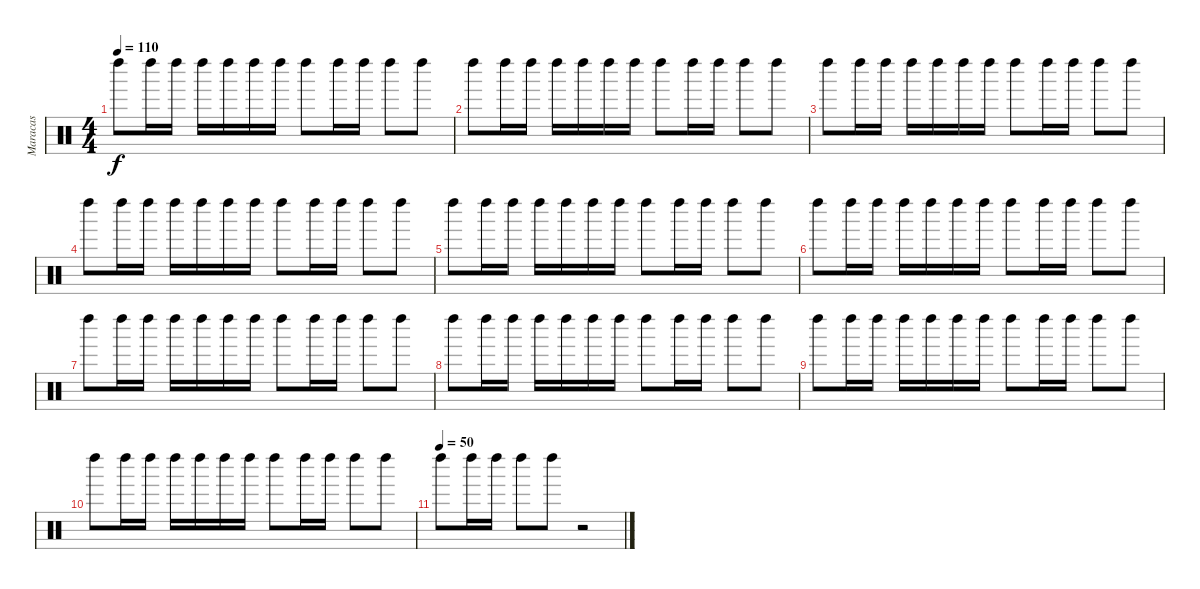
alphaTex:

\track ("Maracas" "Maracas") {instrument percussion}
\staff {score}
\articulation defaults
\ts (4 4)
\tempo 110
\clef neutral
\ks c "Left Maraca (hit)".8{dy f} "Left Maraca (hit)".16 "Left Maraca (hit)".16 "Left Maraca (hit)".16 "Left Maraca (hit)".16 "Left Maraca (hit)".16 "Left Maraca (hit)".16 "Left Maraca (hit)".8 "Left Maraca (hit)".16 "Left Maraca (hit)".16 "Left Maraca (hit)".8 "Left Maraca (hit)".8
|
"Left Maraca (hit)".8 "Left Maraca (hit)".16 "Left Maraca (hit)".16 "Left Maraca (hit)".16 "Left Maraca (hit)".16 "Left Maraca (hit)".16 "Left Maraca (hit)".16 "Left Maraca (hit)".8 "Left Maraca (hit)".16 "Left Maraca (hit)".16 "Left Maraca (hit)".8 "Left Maraca (hit)".8 |
"Left Maraca (hit)".8 "Left Maraca (hit)".16 "Left Maraca (hit)".16 "Left Maraca (hit)".16 "Left Maraca (hit)".16 "Left Maraca (hit)".16 "Left Maraca (hit)".16 "Left Maraca (hit)".8 "Left Maraca (hit)".16 "Left Maraca (hit)".16 "Left Maraca (hit)".8 "Left Maraca (hit)".8 |
"Left Maraca (hit)".8 "Left Maraca (hit)".16 "Left Maraca (hit)".16 "Left Maraca (hit)".16 "Left Maraca (hit)".16 "Left Maraca (hit)".16 "Left Maraca (hit)".16 "Left Maraca (hit)".8 "Left Maraca (hit)".16 "Left Maraca (hit)".16 "Left Maraca (hit)".8 "Left Maraca (hit)".8 |
"Left Maraca (hit)".8 "Left Maraca (hit)".16 "Left Maraca (hit)".16 "Left Maraca (hit)".16 "Left Maraca (hit)".16 "Left Maraca (hit)".16 "Left Maraca (hit)".16 "Left Maraca (hit)".8 "Left Maraca (hit)".16 "Left Maraca (hit)".16 "Left Maraca (hit)".8 "Left Maraca (hit)".8 |
"Left Maraca (hit)".8 "Left Maraca (hit)".16 "Left Maraca (hit)".16 "Left Maraca (hit)".16 "Left Maraca (hit)".16 "Left Maraca (hit)".16 "Left Maraca (hit)".16 "Left Maraca (hit)".8 "Left Maraca (hit)".16 "Left Maraca (hit)".16 "Left Maraca (hit)".8 "Left Maraca (hit)".8 |
"Left Maraca (hit)".8 "Left Maraca (hit)".16 "Left Maraca (hit)".16 "Left Maraca (hit)".16 "Left Maraca (hit)".16 "Left Maraca (hit)".16 "Left Maraca (hit)".16 "Left Maraca (hit)".8 "Left Maraca (hit)".16 "Left Maraca (hit)".16 "Left Maraca (hit)".8 "Left Maraca (hit)".8 |
"Left Maraca (hit)".8 "Left Maraca (hit)".16 "Left Maraca (hit)".16 "Left Maraca (hit)".16 "Left Maraca (hit)".16 "Left Maraca (hit)".16 "Left Maraca (hit)".16 "Left Maraca (hit)".8 "Left Maraca (hit)".16 "Left Maraca (hit)".16 "Left Maraca (hit)".8 "Left Maraca (hit)".8 |
"Left Maraca (hit)".8 "Left Maraca (hit)".16 "Left Maraca (hit)".16 "Left Maraca (hit)".16 "Left Maraca (hit)".16 "Left Maraca (hit)".16 "Left Maraca (hit)".16 "Left Maraca (hit)".8 "Left Maraca (hit)".16 "Left Maraca (hit)".16 "Left Maraca (hit)".8 "Left Maraca (hit)".8 |
"Left Maraca (hit)".8 "Left Maraca (hit)".16 "Left Maraca (hit)".16 "Left Maraca (hit)".16 "Left Maraca (hit)".16 "Left Maraca (hit)".16 "Left Maraca (hit)".16 "Left Maraca (hit)".8 "Left Maraca (hit)".16 "Left Maraca (hit)".16 "Left Maraca (hit)".8 "Left Maraca (hit)".8 |
\tempo (50)
"Left Maraca (hit)".8 "Left Maraca (hit)".16 "Left Maraca (hit)".16 "Left Maraca (hit)".8 "Left Maraca (hit)".8 r.2
